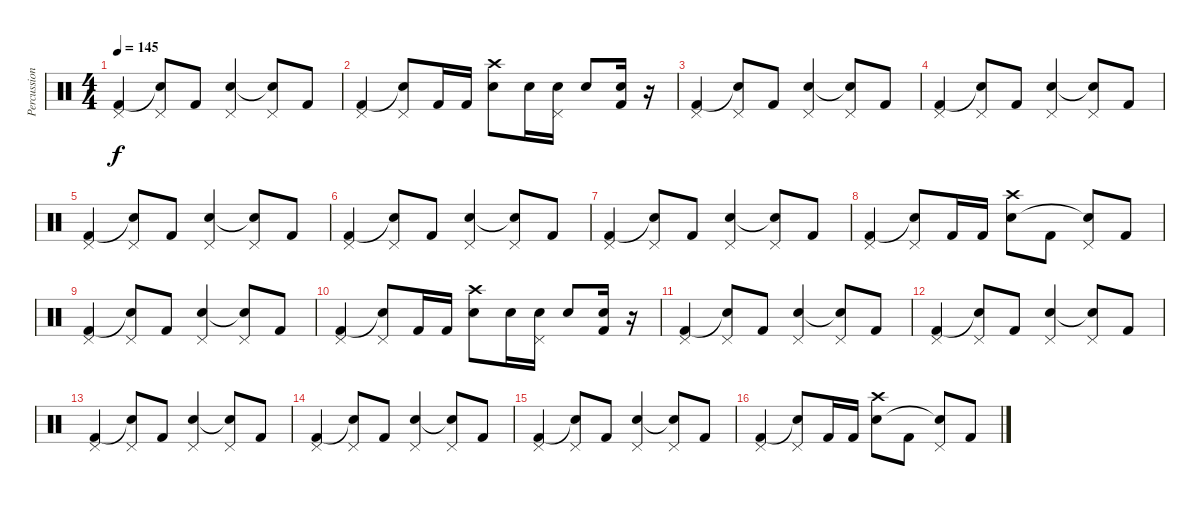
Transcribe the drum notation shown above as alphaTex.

\track ("Percussion" "Percussion") {instrument percussion}
\staff {score}
\articulation defaults
\ts (4 4)
\tempo 145
\clef neutral
\ks c
("Pedal Hi-Hat (hit)" "Kick (hit) 2").4{dy f} ("Pedal Hi-Hat (hit)" "Snare (hit)"{t}).8 "Kick (hit) 2".8 ("Pedal Hi-Hat (hit)" "Snare (hit) 2").4 ("Pedal Hi-Hat (hit)" "Snare (hit)"{t}).8 "Kick (hit) 2".8 |
("Pedal Hi-Hat (hit)" "Kick (hit) 2").4 ("Pedal Hi-Hat (hit)" "Snare (hit)"{t}).8 "Kick (hit) 2".16 "Kick (hit) 2".16 ("Crash high (hit)" "Snare (hit) 2").8 "Snare (hit) 2".16 ("Pedal Hi-Hat (hit)" "Snare (hit) 2").16 "Snare (hit) 2".8 ("Snare (hit) 2" "Kick (hit) 2").16 r.16 |
("Pedal Hi-Hat (hit)" "Kick (hit) 2").4 ("Pedal Hi-Hat (hit)" "Snare (hit)"{t}).8 "Kick (hit) 2".8 ("Pedal Hi-Hat (hit)" "Snare (hit) 2").4 ("Pedal Hi-Hat (hit)" "Snare (hit)"{t}).8 "Kick (hit) 2".8 |
("Pedal Hi-Hat (hit)" "Kick (hit) 2").4 ("Pedal Hi-Hat (hit)" "Snare (hit)"{t}).8 "Kick (hit) 2".8 ("Pedal Hi-Hat (hit)" "Snare (hit) 2").4 ("Pedal Hi-Hat (hit)" "Snare (hit)"{t}).8 "Kick (hit) 2".8 |
("Pedal Hi-Hat (hit)" "Kick (hit) 2").4 ("Pedal Hi-Hat (hit)" "Snare (hit)"{t}).8 "Kick (hit) 2".8 ("Pedal Hi-Hat (hit)" "Snare (hit) 2").4 ("Pedal Hi-Hat (hit)" "Snare (hit)"{t}).8 "Kick (hit) 2".8 |
("Pedal Hi-Hat (hit)" "Kick (hit) 2").4 ("Pedal Hi-Hat (hit)" "Snare (hit)"{t}).8 "Kick (hit) 2".8 ("Pedal Hi-Hat (hit)" "Snare (hit) 2").4 ("Pedal Hi-Hat (hit)" "Snare (hit)"{t}).8 "Kick (hit) 2".8 |
("Pedal Hi-Hat (hit)" "Kick (hit) 2").4 ("Pedal Hi-Hat (hit)" "Snare (hit)"{t}).8 "Kick (hit) 2".8 ("Pedal Hi-Hat (hit)" "Snare (hit) 2").4 ("Pedal Hi-Hat (hit)" "Snare (hit)"{t}).8 "Kick (hit) 2".8 |
("Pedal Hi-Hat (hit)" "Kick (hit) 2").4 ("Pedal Hi-Hat (hit)" "Snare (hit)"{t}).8 "Kick (hit) 2".16 "Kick (hit) 2".16 ("Crash high (hit)" "Snare (hit) 2").8 "Kick (hit) 2".8 ("Pedal Hi-Hat (hit)" "Snare (hit)"{t}).8 "Kick (hit) 2".8 |
("Pedal Hi-Hat (hit)" "Kick (hit) 2").4 ("Pedal Hi-Hat (hit)" "Snare (hit)"{t}).8 "Kick (hit) 2".8 ("Pedal Hi-Hat (hit)" "Snare (hit) 2").4 ("Pedal Hi-Hat (hit)" "Snare (hit)"{t}).8 "Kick (hit) 2".8 |
("Pedal Hi-Hat (hit)" "Kick (hit) 2").4 ("Pedal Hi-Hat (hit)" "Snare (hit)"{t}).8 "Kick (hit) 2".16 "Kick (hit) 2".16 ("Crash high (hit)" "Snare (hit) 2").8 "Snare (hit) 2".16 ("Pedal Hi-Hat (hit)" "Snare (hit) 2").16 "Snare (hit) 2".8 ("Snare (hit) 2" "Kick (hit) 2").16 r.16 |
("Pedal Hi-Hat (hit)" "Kick (hit) 2").4 ("Pedal Hi-Hat (hit)" "Snare (hit)"{t}).8 "Kick (hit) 2".8 ("Pedal Hi-Hat (hit)" "Snare (hit) 2").4 ("Pedal Hi-Hat (hit)" "Snare (hit)"{t}).8 "Kick (hit) 2".8 |
("Pedal Hi-Hat (hit)" "Kick (hit) 2").4 ("Pedal Hi-Hat (hit)" "Snare (hit)"{t}).8 "Kick (hit) 2".8 ("Pedal Hi-Hat (hit)" "Snare (hit) 2").4 ("Pedal Hi-Hat (hit)" "Snare (hit)"{t}).8 "Kick (hit) 2".8 |
("Pedal Hi-Hat (hit)" "Kick (hit) 2").4 ("Pedal Hi-Hat (hit)" "Snare (hit)"{t}).8 "Kick (hit) 2".8 ("Pedal Hi-Hat (hit)" "Snare (hit) 2").4 ("Pedal Hi-Hat (hit)" "Snare (hit)"{t}).8 "Kick (hit) 2".8 |
("Pedal Hi-Hat (hit)" "Kick (hit) 2").4 ("Pedal Hi-Hat (hit)" "Snare (hit)"{t}).8 "Kick (hit) 2".8 ("Pedal Hi-Hat (hit)" "Snare (hit) 2").4 ("Pedal Hi-Hat (hit)" "Snare (hit)"{t}).8 "Kick (hit) 2".8 |
("Pedal Hi-Hat (hit)" "Kick (hit) 2").4 ("Pedal Hi-Hat (hit)" "Snare (hit)"{t}).8 "Kick (hit) 2".8 ("Pedal Hi-Hat (hit)" "Snare (hit) 2").4 ("Pedal Hi-Hat (hit)" "Snare (hit)"{t}).8 "Kick (hit) 2".8 |
("Pedal Hi-Hat (hit)" "Kick (hit) 2").4 ("Pedal Hi-Hat (hit)" "Snare (hit)"{t}).8 "Kick (hit) 2".16 "Kick (hit) 2".16 ("Crash high (hit)" "Snare (hit) 2").8 "Kick (hit) 2".8 ("Pedal Hi-Hat (hit)" "Snare (hit)"{t}).8 "Kick (hit) 2".8
